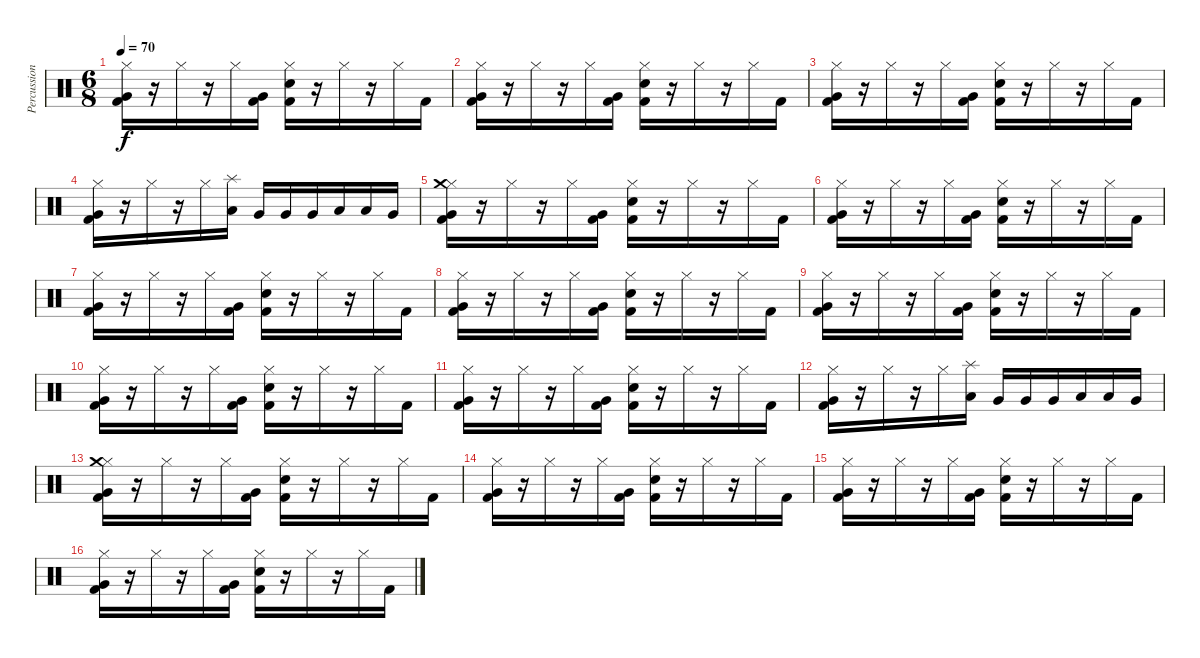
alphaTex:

\track ("Percussion" "Percussion") {instrument percussion}
\staff {score}
\articulation defaults
\ts (6 8)
\tempo 70
\clef neutral
\ks c
("Very Low Tom (hit)" "Hi-Hat (closed)" "Kick (hit) 2").16{dy f} r.16 "Hi-Hat (closed)".16 r.16 "Hi-Hat (closed)".16 ("Kick (hit) 2" "Very Low Tom (hit)").16 ("Hi-Hat (closed)" "Electric Snare (hit)" "Kick (hit) 2").16 r.16 "Hi-Hat (closed)".16 r.16 "Hi-Hat (closed)".16 "Kick (hit) 2".16 |
("Very Low Tom (hit)" "Hi-Hat (closed)" "Kick (hit) 2").16 r.16 "Hi-Hat (closed)".16 r.16 "Hi-Hat (closed)".16 ("Kick (hit) 2" "Very Low Tom (hit)").16 ("Hi-Hat (closed)" "Electric Snare (hit)" "Kick (hit) 2").16 r.16 "Hi-Hat (closed)".16 r.16 "Hi-Hat (closed)".16 "Kick (hit) 2".16 |
("Very Low Tom (hit)" "Hi-Hat (closed)" "Kick (hit) 2").16 r.16 "Hi-Hat (closed)".16 r.16 "Hi-Hat (closed)".16 ("Kick (hit) 2" "Very Low Tom (hit)").16 ("Hi-Hat (closed)" "Electric Snare (hit)" "Kick (hit) 2").16 r.16 "Hi-Hat (closed)".16 r.16 "Hi-Hat (closed)".16 "Kick (hit) 2".16 |
("Very Low Tom (hit)" "Hi-Hat (closed)" "Kick (hit) 2").16 r.16 "Hi-Hat (closed)".16 r.16 "Hi-Hat (closed)".16 ("Splash (hit)" "Low Floor Tom (hit)").16 "Very Low Tom (hit)".16 "Very Low Tom (hit)".16 "Very Low Tom (hit)".16 "Low Floor Tom (hit)".16 "Low Floor Tom (hit)".16 "Very Low Tom (hit)".16 |
("Very Low Tom (hit)" "Hi-Hat (closed)" "Crash medium (hit)" "Kick (hit) 2").16 r.16 "Hi-Hat (closed)".16 r.16 "Hi-Hat (closed)".16 ("Kick (hit) 2" "Very Low Tom (hit)").16 ("Hi-Hat (closed)" "Electric Snare (hit)" "Kick (hit) 2").16 r.16 "Hi-Hat (closed)".16 r.16 "Hi-Hat (closed)".16 "Kick (hit) 2".16 |
("Very Low Tom (hit)" "Hi-Hat (closed)" "Kick (hit) 2").16 r.16 "Hi-Hat (closed)".16 r.16 "Hi-Hat (closed)".16 ("Kick (hit) 2" "Very Low Tom (hit)").16 ("Hi-Hat (closed)" "Electric Snare (hit)" "Kick (hit) 2").16 r.16 "Hi-Hat (closed)".16 r.16 "Hi-Hat (closed)".16 "Kick (hit) 2".16 |
("Very Low Tom (hit)" "Hi-Hat (closed)" "Kick (hit) 2").16 r.16 "Hi-Hat (closed)".16 r.16 "Hi-Hat (closed)".16 ("Kick (hit) 2" "Very Low Tom (hit)").16 ("Hi-Hat (closed)" "Electric Snare (hit)" "Kick (hit) 2").16 r.16 "Hi-Hat (closed)".16 r.16 "Hi-Hat (closed)".16 "Kick (hit) 2".16 |
("Very Low Tom (hit)" "Hi-Hat (closed)" "Kick (hit) 2").16 r.16 "Hi-Hat (closed)".16 r.16 "Hi-Hat (closed)".16 ("Kick (hit) 2" "Very Low Tom (hit)").16 ("Hi-Hat (closed)" "Electric Snare (hit)" "Kick (hit) 2").16 r.16 "Hi-Hat (closed)".16 r.16 "Hi-Hat (closed)".16 "Kick (hit) 2".16 |
("Very Low Tom (hit)" "Hi-Hat (closed)" "Kick (hit) 2").16 r.16 "Hi-Hat (closed)".16 r.16 "Hi-Hat (closed)".16 ("Kick (hit) 2" "Very Low Tom (hit)").16 ("Hi-Hat (closed)" "Electric Snare (hit)" "Kick (hit) 2").16 r.16 "Hi-Hat (closed)".16 r.16 "Hi-Hat (closed)".16 "Kick (hit) 2".16 |
("Very Low Tom (hit)" "Hi-Hat (closed)" "Kick (hit) 2").16 r.16 "Hi-Hat (closed)".16 r.16 "Hi-Hat (closed)".16 ("Kick (hit) 2" "Very Low Tom (hit)").16 ("Hi-Hat (closed)" "Electric Snare (hit)" "Kick (hit) 2").16 r.16 "Hi-Hat (closed)".16 r.16 "Hi-Hat (closed)".16 "Kick (hit) 2".16 |
("Very Low Tom (hit)" "Hi-Hat (closed)" "Kick (hit) 2").16 r.16 "Hi-Hat (closed)".16 r.16 "Hi-Hat (closed)".16 ("Kick (hit) 2" "Very Low Tom (hit)").16 ("Hi-Hat (closed)" "Electric Snare (hit)" "Kick (hit) 2").16 r.16 "Hi-Hat (closed)".16 r.16 "Hi-Hat (closed)".16 "Kick (hit) 2".16 |
("Very Low Tom (hit)" "Hi-Hat (closed)" "Kick (hit) 2").16 r.16 "Hi-Hat (closed)".16 r.16 "Hi-Hat (closed)".16 ("Splash (hit)" "Low Floor Tom (hit)").16 "Very Low Tom (hit)".16 "Very Low Tom (hit)".16 "Very Low Tom (hit)".16 "Low Floor Tom (hit)".16 "Low Floor Tom (hit)".16 "Very Low Tom (hit)".16 |
("Very Low Tom (hit)" "Hi-Hat (closed)" "Crash medium (hit)" "Kick (hit) 2").16 r.16 "Hi-Hat (closed)".16 r.16 "Hi-Hat (closed)".16 ("Kick (hit) 2" "Very Low Tom (hit)").16 ("Hi-Hat (closed)" "Electric Snare (hit)" "Kick (hit) 2").16 r.16 "Hi-Hat (closed)".16 r.16 "Hi-Hat (closed)".16 "Kick (hit) 2".16 |
("Very Low Tom (hit)" "Hi-Hat (closed)" "Kick (hit) 2").16 r.16 "Hi-Hat (closed)".16 r.16 "Hi-Hat (closed)".16 ("Kick (hit) 2" "Very Low Tom (hit)").16 ("Hi-Hat (closed)" "Electric Snare (hit)" "Kick (hit) 2").16 r.16 "Hi-Hat (closed)".16 r.16 "Hi-Hat (closed)".16 "Kick (hit) 2".16 |
("Very Low Tom (hit)" "Hi-Hat (closed)" "Kick (hit) 2").16 r.16 "Hi-Hat (closed)".16 r.16 "Hi-Hat (closed)".16 ("Kick (hit) 2" "Very Low Tom (hit)").16 ("Hi-Hat (closed)" "Electric Snare (hit)" "Kick (hit) 2").16 r.16 "Hi-Hat (closed)".16 r.16 "Hi-Hat (closed)".16 "Kick (hit) 2".16 |
("Very Low Tom (hit)" "Hi-Hat (closed)" "Kick (hit) 2").16 r.16 "Hi-Hat (closed)".16 r.16 "Hi-Hat (closed)".16 ("Kick (hit) 2" "Very Low Tom (hit)").16 ("Hi-Hat (closed)" "Electric Snare (hit)" "Kick (hit) 2").16 r.16 "Hi-Hat (closed)".16 r.16 "Hi-Hat (closed)".16 "Kick (hit) 2".16
